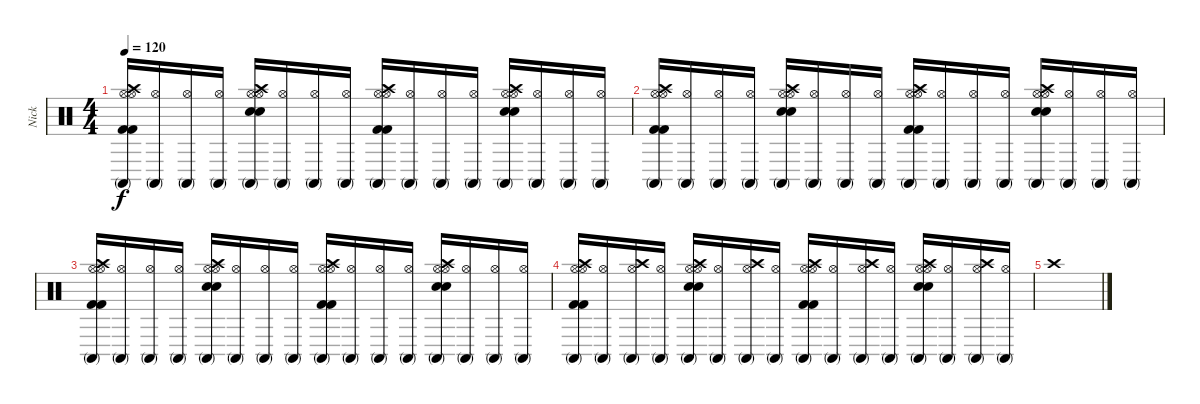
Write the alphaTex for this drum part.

\track ("Nick" "Nick") {instrument percussion}
\staff {score}
\articulation defaults
\ts (4 4)
\tempo 120
\clef neutral
\ks c
("Hi-Hat (open)" "Hi-Hat (open)" "Crash high (hit)" "Kick (hit) 2" "Kick (hit) 2" "Conga high (mute)").16{dy f} ("Hi-Hat (open)" "Conga high (mute)").16 ("Hi-Hat (open)" "Conga high (mute)").16 ("Hi-Hat (open)" "Conga high (mute)").16 ("Hi-Hat (open)" "Hi-Hat (open)" "Crash high (hit)" "Snare (hit) 2" "Snare (hit) 2" "Conga high (mute)").16 ("Hi-Hat (open)" "Conga high (mute)").16 ("Hi-Hat (open)" "Conga high (mute)").16 ("Hi-Hat (open)" "Conga high (mute)").16 ("Hi-Hat (open)" "Hi-Hat (open)" "Crash high (hit)" "Kick (hit) 2" "Kick (hit) 2" "Conga high (mute)").16 ("Hi-Hat (open)" "Conga high (mute)").16 ("Hi-Hat (open)" "Conga high (mute)").16 ("Hi-Hat (open)" "Conga high (mute)").16 ("Hi-Hat (open)" "Hi-Hat (open)" "Crash high (hit)" "Snare (hit) 2" "Snare (hit) 2" "Conga high (mute)").16 ("Hi-Hat (open)" "Conga high (mute)").16 ("Hi-Hat (open)" "Conga high (mute)").16 ("Hi-Hat (open)" "Conga high (mute)").16 |
("Hi-Hat (open)" "Hi-Hat (open)" "Crash high (hit)" "Kick (hit) 2" "Kick (hit) 2" "Conga high (mute)").16 ("Hi-Hat (open)" "Conga high (mute)").16 ("Hi-Hat (open)" "Conga high (mute)").16 ("Hi-Hat (open)" "Conga high (mute)").16 ("Hi-Hat (open)" "Hi-Hat (open)" "Crash high (hit)" "Snare (hit) 2" "Snare (hit) 2" "Conga high (mute)").16 ("Hi-Hat (open)" "Conga high (mute)").16 ("Hi-Hat (open)" "Conga high (mute)").16 ("Hi-Hat (open)" "Conga high (mute)").16 ("Hi-Hat (open)" "Hi-Hat (open)" "Crash high (hit)" "Kick (hit) 2" "Kick (hit) 2" "Conga high (mute)").16 ("Hi-Hat (open)" "Conga high (mute)").16 ("Hi-Hat (open)" "Conga high (mute)").16 ("Hi-Hat (open)" "Conga high (mute)").16 ("Hi-Hat (open)" "Hi-Hat (open)" "Crash high (hit)" "Snare (hit) 2" "Snare (hit) 2" "Conga high (mute)").16 ("Hi-Hat (open)" "Conga high (mute)").16 ("Hi-Hat (open)" "Conga high (mute)").16 ("Hi-Hat (open)" "Conga high (mute)").16 |
("Hi-Hat (open)" "Hi-Hat (open)" "Crash high (hit)" "Kick (hit) 2" "Kick (hit) 2" "Conga high (mute)").16 ("Hi-Hat (open)" "Conga high (mute)").16 ("Hi-Hat (open)" "Conga high (mute)").16 ("Hi-Hat (open)" "Conga high (mute)").16 ("Hi-Hat (open)" "Hi-Hat (open)" "Crash high (hit)" "Snare (hit) 2" "Snare (hit) 2" "Conga high (mute)").16 ("Hi-Hat (open)" "Conga high (mute)").16 ("Hi-Hat (open)" "Conga high (mute)").16 ("Hi-Hat (open)" "Conga high (mute)").16 ("Hi-Hat (open)" "Hi-Hat (open)" "Crash high (hit)" "Kick (hit) 2" "Kick (hit) 2" "Conga high (mute)").16 ("Hi-Hat (open)" "Conga high (mute)").16 ("Hi-Hat (open)" "Conga high (mute)").16 ("Hi-Hat (open)" "Conga high (mute)").16 ("Hi-Hat (open)" "Hi-Hat (open)" "Crash high (hit)" "Snare (hit) 2" "Snare (hit) 2" "Conga high (mute)").16 ("Hi-Hat (open)" "Conga high (mute)").16 ("Hi-Hat (open)" "Conga high (mute)").16 ("Hi-Hat (open)" "Conga high (mute)").16 |
("Hi-Hat (open)" "Hi-Hat (open)" "Crash high (hit)" "Kick (hit) 2" "Kick (hit) 2" "Conga high (mute)").16 ("Hi-Hat (open)" "Conga high (mute)").16 ("Hi-Hat (open)" "Crash high (hit)" "Conga high (mute)").16 ("Hi-Hat (open)" "Conga high (mute)").16 ("Hi-Hat (open)" "Hi-Hat (open)" "Crash high (hit)" "Snare (hit) 2" "Snare (hit) 2" "Conga high (mute)").16 ("Hi-Hat (open)" "Conga high (mute)").16 ("Hi-Hat (open)" "Crash high (hit)" "Conga high (mute)").16 ("Hi-Hat (open)" "Conga high (mute)").16 ("Hi-Hat (open)" "Hi-Hat (open)" "Crash high (hit)" "Kick (hit) 2" "Kick (hit) 2" "Conga high (mute)").16 ("Hi-Hat (open)" "Conga high (mute)").16 ("Hi-Hat (open)" "Crash high (hit)" "Conga high (mute)").16 ("Hi-Hat (open)" "Conga high (mute)").16 ("Hi-Hat (open)" "Hi-Hat (open)" "Crash high (hit)" "Snare (hit) 2" "Snare (hit) 2" "Conga high (mute)").16 ("Hi-Hat (open)" "Conga high (mute)").16 ("Hi-Hat (open)" "Crash high (hit)" "Conga high (mute)").16 ("Hi-Hat (open)" "Conga high (mute)").16 |
"Crash high (hit)".1
